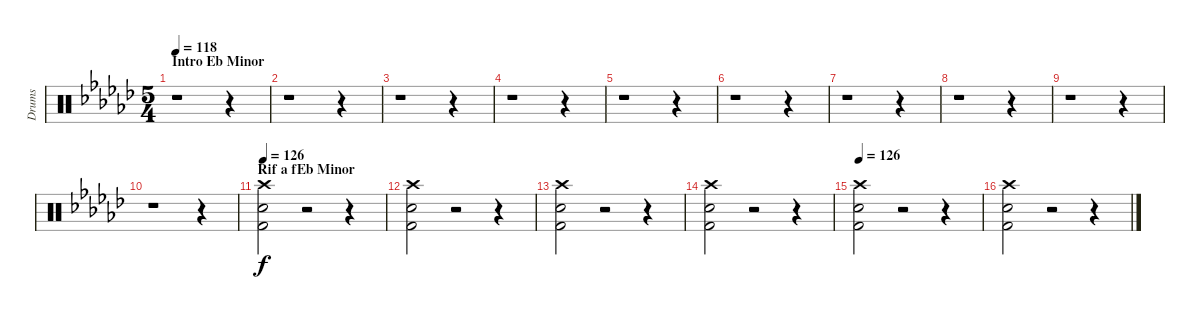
\track ("Drums" "Drums") {instrument percussion}
\staff {score}
\articulation defaults
\ts (5 4)
\section ("" "Intro Eb Minor")
\tempo 118
\clef neutral
\ks ebminor
r.1{dy f} r.4 |
r.1 r.4 |
r.1 r.4 |
r.1 r.4 |
r.1 r.4 |
r.1 r.4 |
r.1 r.4 |
r.1 r.4 |
r.1 r.4 |
r.1 r.4 |
\section ("" "Rif a fEb Minor")
\tempo 126
("Crash high (hit)" "Electric Snare (hit)" "Kick (hit) 2").2 r.2 r.4 |
("Crash high (hit)" "Electric Snare (hit)" "Kick (hit) 2").2 r.2 r.4 |
("Crash high (hit)" "Electric Snare (hit)" "Kick (hit) 2").2 r.2 r.4 |
("Crash high (hit)" "Electric Snare (hit)" "Kick (hit) 2").2 r.2 r.4 |
\tempo 126
("Crash high (hit)" "Electric Snare (hit)" "Kick (hit) 2").2 r.2 r.4 |
("Crash high (hit)" "Electric Snare (hit)" "Kick (hit) 2").2 r.2 r.4
